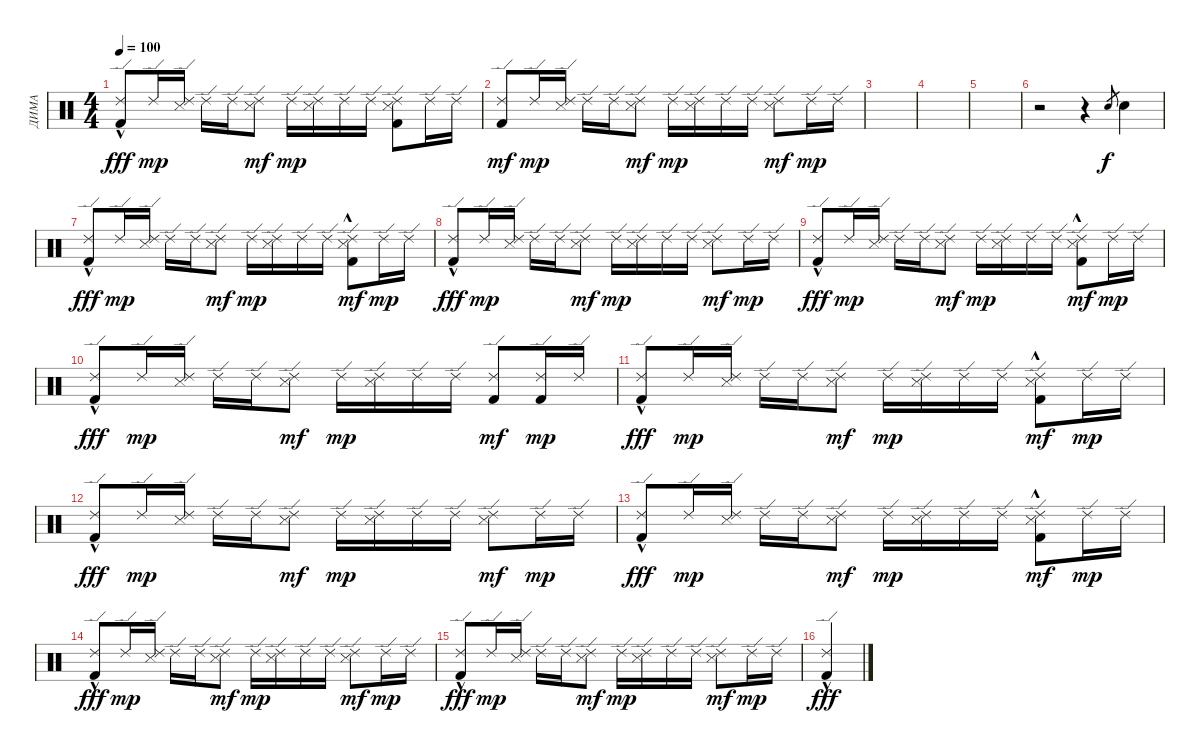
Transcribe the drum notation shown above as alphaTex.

\track ("ДИМА" "ДИМА") {instrument percussion}
\staff {score}
\articulation defaults
\ts (4 4)
\tempo 100
\clef neutral
\ks c
("Ride (edge) 2" "Kick (hit) 2"{hac}).8{dy fff} "Ride (edge) 2".16{dy mp} ("Ride (edge) 2" "Snare (side stick) 3").16 "Ride (edge) 2".16 "Ride (edge) 2".16 ("Ride (edge) 2" "Snare (side stick) 3").8{dy mf} "Ride (edge) 2".16{dy mp} ("Ride (edge) 2" "Snare (side stick) 3").16 "Ride (edge) 2".16 "Ride (edge) 2".16 ("Ride (edge) 2" "Snare (side stick) 3" "Kick (hit) 2").8 "Ride (edge) 2".16 "Ride (edge) 2".16 |
("Ride (edge) 2" "Kick (hit) 2").8{dy mf} "Ride (edge) 2".16{dy mp} ("Ride (edge) 2" "Snare (side stick) 3").16 "Ride (edge) 2".16 "Ride (edge) 2".16 ("Ride (edge) 2" "Snare (side stick) 3").8{dy mf} "Ride (edge) 2".16{dy mp} ("Ride (edge) 2" "Snare (side stick) 3").16 "Ride (edge) 2".16 "Ride (edge) 2".16 ("Ride (edge) 2" "Snare (side stick) 3").8{dy mf} "Ride (edge) 2".16{dy mp} "Ride (edge) 2".16 |
|
|
|
r.2 r.4 "Snare (hit) 2".8{gr dy f} "Snare (hit) 2".4 |
("Ride (edge) 2" "Kick (hit) 2"{hac}).8{dy fff} "Ride (edge) 2".16{dy mp} ("Ride (edge) 2" "Snare (side stick) 3").16 "Ride (edge) 2".16 "Ride (edge) 2".16 ("Ride (edge) 2" "Snare (side stick) 3").8{dy mf} "Ride (edge) 2".16{dy mp} ("Ride (edge) 2" "Snare (side stick) 3").16 "Ride (edge) 2".16 "Ride (edge) 2".16 ("Ride (edge) 2" "Snare (side stick) 3" "Kick (hit) 2"{hac}).8{dy mf} "Ride (edge) 2".16{dy mp} "Ride (edge) 2".16 |
("Ride (edge) 2" "Kick (hit) 2"{hac}).8{dy fff} "Ride (edge) 2".16{dy mp} ("Ride (edge) 2" "Snare (side stick) 3").16 "Ride (edge) 2".16 "Ride (edge) 2".16 ("Ride (edge) 2" "Snare (side stick) 3").8{dy mf} "Ride (edge) 2".16{dy mp} ("Ride (edge) 2" "Snare (side stick) 3").16 "Ride (edge) 2".16 "Ride (edge) 2".16 ("Ride (edge) 2" "Snare (side stick) 3").8{dy mf} "Ride (edge) 2".16{dy mp} "Ride (edge) 2".16 |
("Ride (edge) 2" "Kick (hit) 2"{hac}).8{dy fff} "Ride (edge) 2".16{dy mp} ("Ride (edge) 2" "Snare (side stick) 3").16 "Ride (edge) 2".16 "Ride (edge) 2".16 ("Ride (edge) 2" "Snare (side stick) 3").8{dy mf} "Ride (edge) 2".16{dy mp} ("Ride (edge) 2" "Snare (side stick) 3").16 "Ride (edge) 2".16 "Ride (edge) 2".16 ("Ride (edge) 2" "Snare (side stick) 3" "Kick (hit) 2"{hac}).8{dy mf} "Ride (edge) 2".16{dy mp} "Ride (edge) 2".16 |
("Ride (edge) 2" "Kick (hit) 2"{hac}).8{dy fff} "Ride (edge) 2".16{dy mp} ("Ride (edge) 2" "Snare (side stick) 3").16 "Ride (edge) 2".16 "Ride (edge) 2".16 ("Ride (edge) 2" "Snare (side stick) 3").8{dy mf} "Ride (edge) 2".16{dy mp} ("Ride (edge) 2" "Snare (side stick) 3").16 "Ride (edge) 2".16 "Ride (edge) 2".16 ("Ride (edge) 2" "Kick (hit) 2").8{dy mf} ("Ride (edge) 2" "Kick (hit) 2").16{dy mp} "Ride (edge) 2".16 |
("Ride (edge) 2" "Kick (hit) 2"{hac}).8{dy fff} "Ride (edge) 2".16{dy mp} ("Ride (edge) 2" "Snare (side stick) 3").16 "Ride (edge) 2".16 "Ride (edge) 2".16 ("Ride (edge) 2" "Snare (side stick) 3").8{dy mf} "Ride (edge) 2".16{dy mp} ("Ride (edge) 2" "Snare (side stick) 3").16 "Ride (edge) 2".16 "Ride (edge) 2".16 ("Ride (edge) 2" "Snare (side stick) 3" "Kick (hit) 2"{hac}).8{dy mf} "Ride (edge) 2".16{dy mp} "Ride (edge) 2".16 |
("Ride (edge) 2" "Kick (hit) 2"{hac}).8{dy fff} "Ride (edge) 2".16{dy mp} ("Ride (edge) 2" "Snare (side stick) 3").16 "Ride (edge) 2".16 "Ride (edge) 2".16 ("Ride (edge) 2" "Snare (side stick) 3").8{dy mf} "Ride (edge) 2".16{dy mp} ("Ride (edge) 2" "Snare (side stick) 3").16 "Ride (edge) 2".16 "Ride (edge) 2".16 ("Ride (edge) 2" "Snare (side stick) 3").8{dy mf} "Ride (edge) 2".16{dy mp} "Ride (edge) 2".16 |
("Ride (edge) 2" "Kick (hit) 2"{hac}).8{dy fff} "Ride (edge) 2".16{dy mp} ("Ride (edge) 2" "Snare (side stick) 3").16 "Ride (edge) 2".16 "Ride (edge) 2".16 ("Ride (edge) 2" "Snare (side stick) 3").8{dy mf} "Ride (edge) 2".16{dy mp} ("Ride (edge) 2" "Snare (side stick) 3").16 "Ride (edge) 2".16 "Ride (edge) 2".16 ("Ride (edge) 2" "Snare (side stick) 3" "Kick (hit) 2"{hac}).8{dy mf} "Ride (edge) 2".16{dy mp} "Ride (edge) 2".16 |
("Ride (edge) 2" "Kick (hit) 2"{hac}).8{dy fff} "Ride (edge) 2".16{dy mp} ("Ride (edge) 2" "Snare (side stick) 3").16 "Ride (edge) 2".16 "Ride (edge) 2".16 ("Ride (edge) 2" "Snare (side stick) 3").8{dy mf} "Ride (edge) 2".16{dy mp} ("Ride (edge) 2" "Snare (side stick) 3").16 "Ride (edge) 2".16 "Ride (edge) 2".16 ("Ride (edge) 2" "Snare (side stick) 3").8{dy mf} "Ride (edge) 2".16{dy mp} "Ride (edge) 2".16 |
("Ride (edge) 2" "Kick (hit) 2"{hac}).8{dy fff} "Ride (edge) 2".16{dy mp} ("Ride (edge) 2" "Snare (side stick) 3").16 "Ride (edge) 2".16 "Ride (edge) 2".16 ("Ride (edge) 2" "Snare (side stick) 3").8{dy mf} "Ride (edge) 2".16{dy mp} ("Ride (edge) 2" "Snare (side stick) 3").16 "Ride (edge) 2".16 "Ride (edge) 2".16 ("Ride (edge) 2" "Snare (side stick) 3").8{dy mf} "Ride (edge) 2".16{dy mp} "Ride (edge) 2".16 |
("Ride (edge) 2" "Kick (hit) 2"{hac}).4{dy fff}
